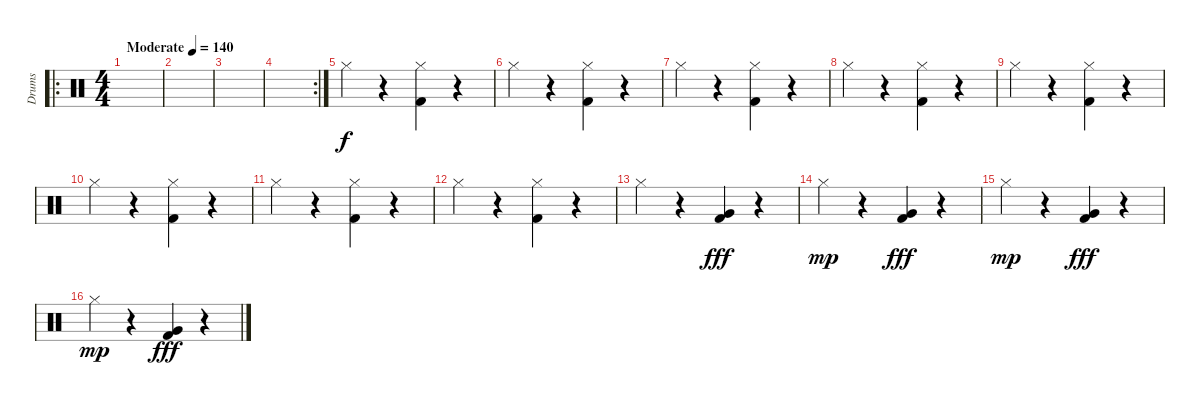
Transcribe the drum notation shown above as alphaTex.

\track ("Drums" "Drums") {instrument percussion}
\staff {score}
\articulation defaults
\ro
\ts (4 4)
\tempo (140 "Moderate")
\clef neutral
\ks c
|
|
|
\rc 2
|
"Hi-Hat (closed)".4 r.4 ("Kick (hit) 2" "Hi-Hat (closed)").4 r.4 |
"Hi-Hat (closed)".4 r.4 ("Kick (hit) 2" "Hi-Hat (closed)").4 r.4 |
"Hi-Hat (closed)".4 r.4 ("Kick (hit) 2" "Hi-Hat (closed)").4 r.4 |
"Hi-Hat (closed)".4 r.4 ("Kick (hit) 2" "Hi-Hat (closed)").4 r.4 |
"Hi-Hat (closed)".4 r.4 ("Kick (hit) 2" "Hi-Hat (closed)").4 r.4 |
"Hi-Hat (closed)".4 r.4 ("Kick (hit) 2" "Hi-Hat (closed)").4 r.4 |
"Hi-Hat (closed)".4 r.4 ("Kick (hit) 2" "Hi-Hat (closed)").4 r.4 |
"Hi-Hat (closed)".4 r.4 ("Kick (hit) 2" "Hi-Hat (closed)").4 r.4 |
"Hi-Hat (closed)".4 r.4 ("Kick (hit) 2" "Very Low Tom (hit)").4{dy fff} r.4 |
"Hi-Hat (closed)".4{dy mp} r.4 ("Kick (hit) 2" "Very Low Tom (hit)").4{dy fff} r.4 |
"Hi-Hat (closed)".4{dy mp} r.4 ("Kick (hit) 2" "Very Low Tom (hit)").4{dy fff} r.4 |
"Hi-Hat (closed)".4{dy mp} r.4 ("Kick (hit) 2" "Very Low Tom (hit)").4{dy fff} r.4
